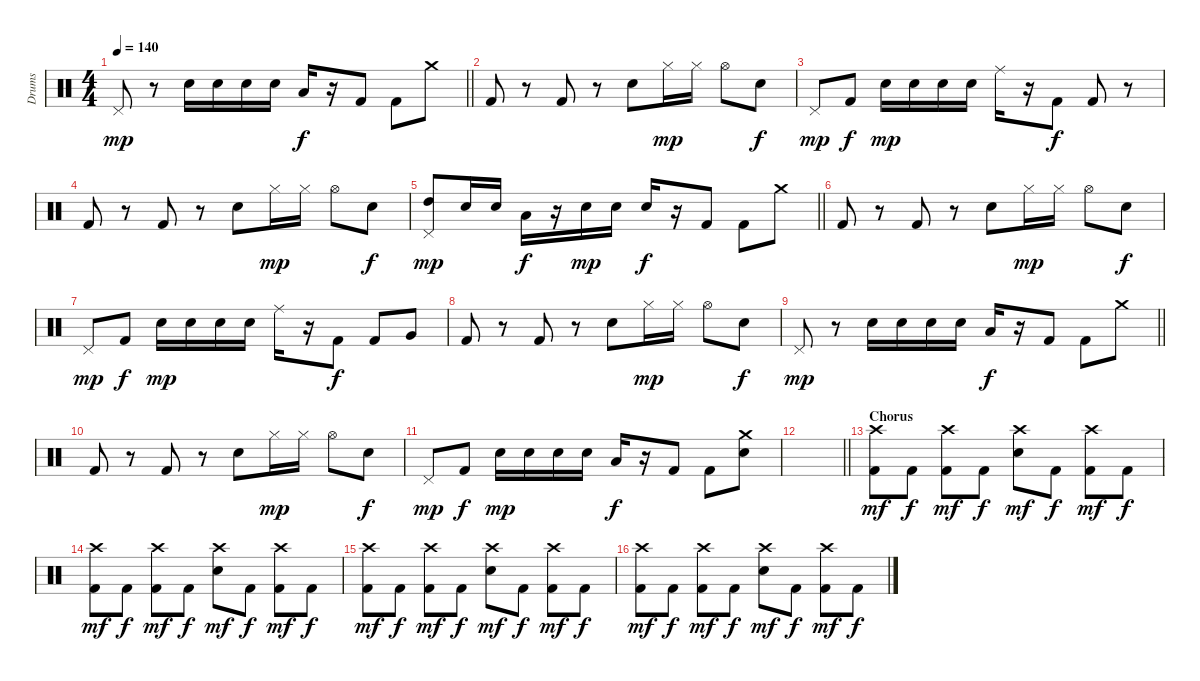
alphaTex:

\track ("Drums" "Drums") {instrument percussion}
\staff {score}
\articulation defaults
\ts (4 4)
\tempo 140
\clef neutral
\barLineRight lightlight
\ks c "Pedal Hi-Hat (hit)".8{dy mp}
r.8 "Snare (hit) 2".16 "Snare (hit) 2".16 "Snare (hit) 2".16 "Snare (hit) 2".16 "Low Tom (hit)".16{dy f} r.16 "Kick (hit) 2".8 "Kick (hit) 2".8 "Crash medium (hit)".8 |
"Kick (hit) 2".8 r.8 "Kick (hit) 2".8 r.8 "Snare (hit) 2".8 "Hi-Hat (closed)".16{dy mp} "Hi-Hat (closed)".16 "Hi-Hat (open)".8 "Snare (hit) 2".8{dy f} |
"Pedal Hi-Hat (hit)".8{dy mp} "Kick (hit) 2".8{dy f} "Snare (hit) 2".16{dy mp} "Snare (hit) 2".16 "Snare (hit) 2".16 "Snare (hit) 2".16 "Ride (middle)".16 r.16 "Kick (hit) 2".8{dy f} "Kick (hit) 2".8 r.8 |
"Kick (hit) 2".8 r.8 "Kick (hit) 2".8 r.8 "Snare (hit) 2".8 "Hi-Hat (closed)".16{dy mp} "Hi-Hat (closed)".16 "Hi-Hat (open)".8 "Snare (hit) 2".8{dy f} |
\barLineRight lightlight
("High Tom (hit)" "Pedal Hi-Hat (hit)").8{dy mp} "Snare (hit) 2".16 "Snare (hit) 2".16 "Low Tom (hit)".16{dy f} r.16 "Snare (hit) 2".16{dy mp} "Snare (hit) 2".16 "Snare (hit) 2".16{dy f} r.16 "Kick (hit) 2".8 "Kick (hit) 2".8 "Crash medium (hit)".8 |
"Kick (hit) 2".8 r.8 "Kick (hit) 2".8 r.8 "Snare (hit) 2".8 "Hi-Hat (closed)".16{dy mp} "Hi-Hat (closed)".16 "Hi-Hat (open)".8 "Snare (hit) 2".8{dy f} |
"Pedal Hi-Hat (hit)".8{dy mp} "Kick (hit) 2".8{dy f} "Snare (hit) 2".16{dy mp} "Snare (hit) 2".16 "Snare (hit) 2".16 "Snare (hit) 2".16 "Ride (middle)".16 r.16 "Kick (hit) 2".8{dy f} "Kick (hit) 2".8 "Very Low Tom (hit)".8 |
"Kick (hit) 2".8 r.8 "Kick (hit) 2".8 r.8 "Snare (hit) 2".8 "Hi-Hat (closed)".16{dy mp} "Hi-Hat (closed)".16 "Hi-Hat (open)".8 "Snare (hit) 2".8{dy f} |
\barLineRight lightlight "Pedal Hi-Hat (hit)".8{dy mp}
r.8 "Snare (hit) 2".16 "Snare (hit) 2".16 "Snare (hit) 2".16 "Snare (hit) 2".16 "Low Tom (hit)".16{dy f} r.16 "Kick (hit) 2".8 "Kick (hit) 2".8 "Crash medium (hit)".8 |
"Kick (hit) 2".8 r.8 "Kick (hit) 2".8 r.8 "Snare (hit) 2".8 "Hi-Hat (closed)".16{dy mp} "Hi-Hat (closed)".16 "Hi-Hat (open)".8 "Snare (hit) 2".8{dy f} |
"Pedal Hi-Hat (hit)".8{dy mp} "Kick (hit) 2".8{dy f} "Snare (hit) 2".16{dy mp} "Snare (hit) 2".16 "Snare (hit) 2".16 "Snare (hit) 2".16 "Low Tom (hit)".16{dy f} r.16 "Kick (hit) 2".8 "Kick (hit) 2".8 ("Crash medium (hit)" "Snare (hit) 2").8 |
\barLineRight lightlight
|
\section ("" "Chorus")
("Crash high (hit)" "Kick (hit) 2").8{dy mf} "Kick (hit) 2".8{dy f} ("Crash high (hit)" "Kick (hit) 2").8{dy mf} "Kick (hit) 2".8{dy f} ("Crash high (hit)" "Snare (hit) 2").8{dy mf} "Kick (hit) 2".8{dy f} ("Crash high (hit)" "Kick (hit) 2").8{dy mf} "Kick (hit) 2".8{dy f} |
("Crash high (hit)" "Kick (hit) 2").8{dy mf} "Kick (hit) 2".8{dy f} ("Crash high (hit)" "Kick (hit) 2").8{dy mf} "Kick (hit) 2".8{dy f} ("Crash high (hit)" "Snare (hit) 2").8{dy mf} "Kick (hit) 2".8{dy f} ("Crash high (hit)" "Kick (hit) 2").8{dy mf} "Kick (hit) 2".8{dy f} |
("Crash high (hit)" "Kick (hit) 2").8{dy mf} "Kick (hit) 2".8{dy f} ("Crash high (hit)" "Kick (hit) 2").8{dy mf} "Kick (hit) 2".8{dy f} ("Crash high (hit)" "Snare (hit) 2").8{dy mf} "Kick (hit) 2".8{dy f} ("Crash high (hit)" "Kick (hit) 2").8{dy mf} "Kick (hit) 2".8{dy f} |
("Crash high (hit)" "Kick (hit) 2").8{dy mf} "Kick (hit) 2".8{dy f} ("Crash high (hit)" "Kick (hit) 2").8{dy mf} "Kick (hit) 2".8{dy f} ("Crash high (hit)" "Snare (hit) 2").8{dy mf} "Kick (hit) 2".8{dy f} ("Crash high (hit)" "Kick (hit) 2").8{dy mf} "Kick (hit) 2".8{dy f}
